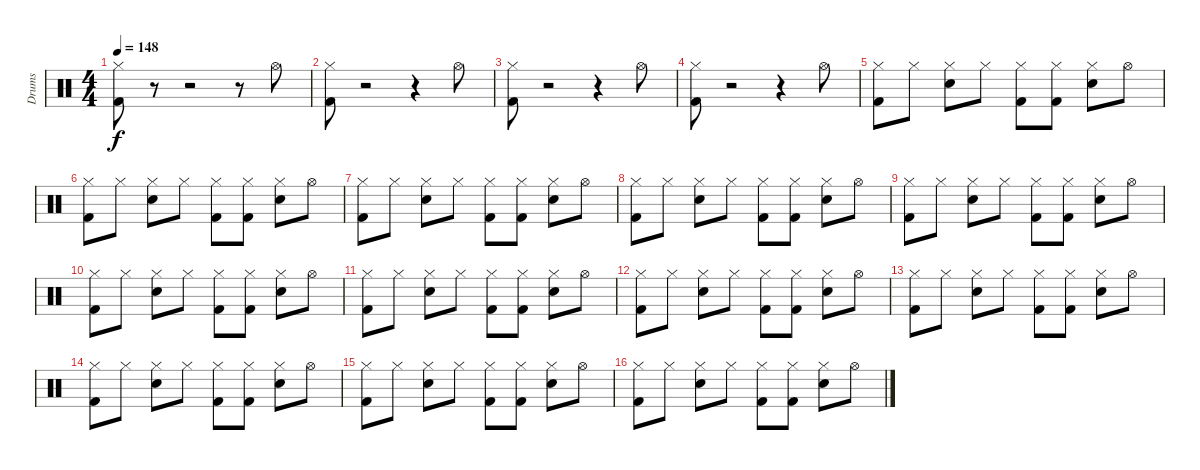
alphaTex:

\track ("Drums" "Drums") {instrument percussion}
\staff {score}
\articulation defaults
\ts (4 4)
\tempo 148
\clef neutral
\ks c
("Hi-Hat (closed)" "Kick (hit) 2").8{dy f} r.8 r.2 r.8 "Hi-Hat (open)".8 |
("Hi-Hat (closed)" "Kick (hit) 2").8 r.2 r.4 "Hi-Hat (open)".8 |
("Hi-Hat (closed)" "Kick (hit) 2").8 r.2 r.4 "Hi-Hat (open)".8 |
("Hi-Hat (closed)" "Kick (hit) 2").8 r.2 r.4 "Hi-Hat (open)".8 |
("Hi-Hat (closed)" "Kick (hit) 2").8 "Hi-Hat (closed)".8 ("Hi-Hat (closed)" "Snare (hit) 2").8 "Hi-Hat (closed)".8 ("Hi-Hat (closed)" "Kick (hit) 2").8 ("Hi-Hat (closed)" "Kick (hit) 2").8 ("Hi-Hat (closed)" "Snare (hit) 2").8 "Hi-Hat (open)".8 |
("Hi-Hat (closed)" "Kick (hit) 2").8 "Hi-Hat (closed)".8 ("Hi-Hat (closed)" "Snare (hit) 2").8 "Hi-Hat (closed)".8 ("Hi-Hat (closed)" "Kick (hit) 2").8 ("Hi-Hat (closed)" "Kick (hit) 2").8 ("Hi-Hat (closed)" "Snare (hit) 2").8 "Hi-Hat (open)".8 |
("Hi-Hat (closed)" "Kick (hit) 2").8 "Hi-Hat (closed)".8 ("Hi-Hat (closed)" "Snare (hit) 2").8 "Hi-Hat (closed)".8 ("Hi-Hat (closed)" "Kick (hit) 2").8 ("Hi-Hat (closed)" "Kick (hit) 2").8 ("Hi-Hat (closed)" "Snare (hit) 2").8 "Hi-Hat (open)".8 |
("Hi-Hat (closed)" "Kick (hit) 2").8 "Hi-Hat (closed)".8 ("Hi-Hat (closed)" "Snare (hit) 2").8 "Hi-Hat (closed)".8 ("Hi-Hat (closed)" "Kick (hit) 2").8 ("Hi-Hat (closed)" "Kick (hit) 2").8 ("Hi-Hat (closed)" "Snare (hit) 2").8 "Hi-Hat (open)".8 |
("Hi-Hat (closed)" "Kick (hit) 2").8 "Hi-Hat (closed)".8 ("Hi-Hat (closed)" "Snare (hit) 2").8 "Hi-Hat (closed)".8 ("Hi-Hat (closed)" "Kick (hit) 2").8 ("Hi-Hat (closed)" "Kick (hit) 2").8 ("Hi-Hat (closed)" "Snare (hit) 2").8 "Hi-Hat (open)".8 |
("Hi-Hat (closed)" "Kick (hit) 2").8 "Hi-Hat (closed)".8 ("Hi-Hat (closed)" "Snare (hit) 2").8 "Hi-Hat (closed)".8 ("Hi-Hat (closed)" "Kick (hit) 2").8 ("Hi-Hat (closed)" "Kick (hit) 2").8 ("Hi-Hat (closed)" "Snare (hit) 2").8 "Hi-Hat (open)".8 |
("Hi-Hat (closed)" "Kick (hit) 2").8 "Hi-Hat (closed)".8 ("Hi-Hat (closed)" "Snare (hit) 2").8 "Hi-Hat (closed)".8 ("Hi-Hat (closed)" "Kick (hit) 2").8 ("Hi-Hat (closed)" "Kick (hit) 2").8 ("Hi-Hat (closed)" "Snare (hit) 2").8 "Hi-Hat (open)".8 |
("Hi-Hat (closed)" "Kick (hit) 2").8 "Hi-Hat (closed)".8 ("Hi-Hat (closed)" "Snare (hit) 2").8 "Hi-Hat (closed)".8 ("Hi-Hat (closed)" "Kick (hit) 2").8 ("Hi-Hat (closed)" "Kick (hit) 2").8 ("Hi-Hat (closed)" "Snare (hit) 2").8 "Hi-Hat (open)".8 |
("Hi-Hat (closed)" "Kick (hit) 2").8 "Hi-Hat (closed)".8 ("Hi-Hat (closed)" "Snare (hit) 2").8 "Hi-Hat (closed)".8 ("Hi-Hat (closed)" "Kick (hit) 2").8 ("Hi-Hat (closed)" "Kick (hit) 2").8 ("Hi-Hat (closed)" "Snare (hit) 2").8 "Hi-Hat (open)".8 |
("Hi-Hat (closed)" "Kick (hit) 2").8 "Hi-Hat (closed)".8 ("Hi-Hat (closed)" "Snare (hit) 2").8 "Hi-Hat (closed)".8 ("Hi-Hat (closed)" "Kick (hit) 2").8 ("Hi-Hat (closed)" "Kick (hit) 2").8 ("Hi-Hat (closed)" "Snare (hit) 2").8 "Hi-Hat (open)".8 |
("Hi-Hat (closed)" "Kick (hit) 2").8 "Hi-Hat (closed)".8 ("Hi-Hat (closed)" "Snare (hit) 2").8 "Hi-Hat (closed)".8 ("Hi-Hat (closed)" "Kick (hit) 2").8 ("Hi-Hat (closed)" "Kick (hit) 2").8 ("Hi-Hat (closed)" "Snare (hit) 2").8 "Hi-Hat (open)".8 |
("Hi-Hat (closed)" "Kick (hit) 2").8 "Hi-Hat (closed)".8 ("Hi-Hat (closed)" "Snare (hit) 2").8 "Hi-Hat (closed)".8 ("Hi-Hat (closed)" "Kick (hit) 2").8 ("Hi-Hat (closed)" "Kick (hit) 2").8 ("Hi-Hat (closed)" "Snare (hit) 2").8 "Hi-Hat (open)".8
